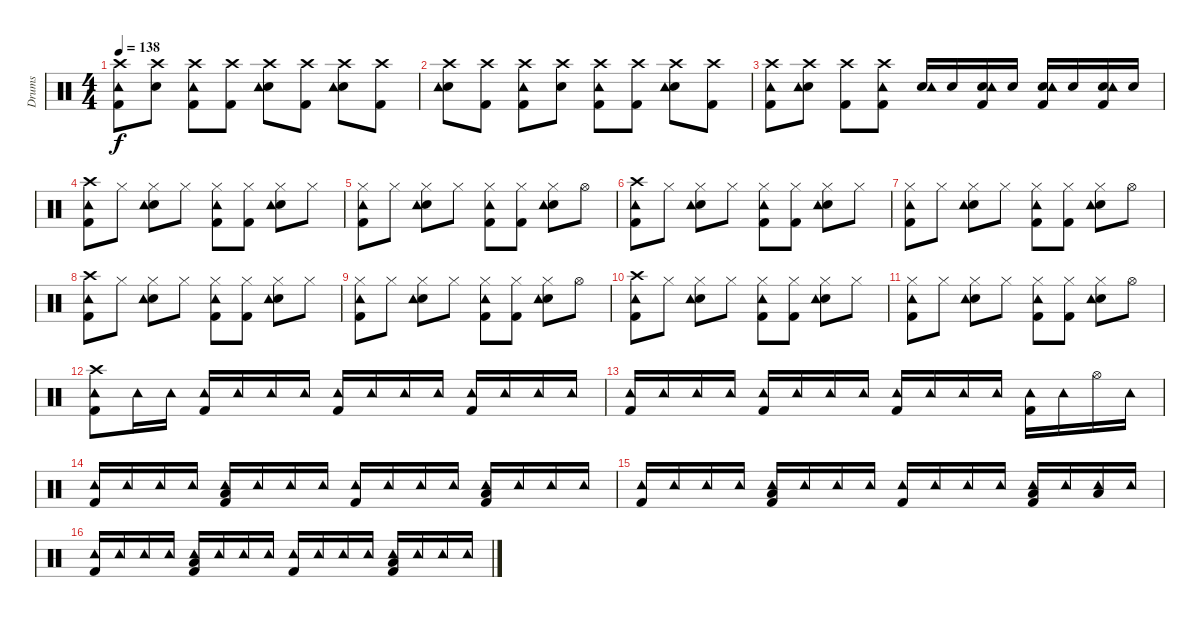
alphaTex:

\track ("Drums" "Drums") {instrument percussion}
\staff {score}
\articulation defaults
\ts (4 4)
\tempo 138
\clef neutral
\ks c
("Crash high (hit)" "Kick (hit) 2" "Tambourine (hit)").8{dy f} ("Crash high (hit)" "Electric Snare (hit)").8 ("Crash high (hit)" "Kick (hit) 2" "Tambourine (hit)").8 ("Crash high (hit)" "Kick (hit) 2").8 ("Crash high (hit)" "Electric Snare (hit)" "Tambourine (hit)").8 ("Crash high (hit)" "Kick (hit) 2").8 ("Crash high (hit)" "Electric Snare (hit)" "Tambourine (hit)").8 ("Crash high (hit)" "Kick (hit) 2").8 |
("Crash high (hit)" "Electric Snare (hit)" "Tambourine (hit)").8 ("Crash high (hit)" "Kick (hit) 2").8 ("Crash high (hit)" "Kick (hit) 2" "Tambourine (hit)").8 ("Crash high (hit)" "Electric Snare (hit)").8 ("Crash high (hit)" "Kick (hit) 2" "Tambourine (hit)").8 ("Crash high (hit)" "Kick (hit) 2").8 ("Crash high (hit)" "Electric Snare (hit)" "Tambourine (hit)").8 ("Crash high (hit)" "Kick (hit) 2").8 |
("Crash high (hit)" "Kick (hit) 2" "Tambourine (hit)").8 ("Crash high (hit)" "Electric Snare (hit)" "Tambourine (hit)").8 ("Crash high (hit)" "Kick (hit) 2").8 ("Crash high (hit)" "Kick (hit) 2" "Tambourine (hit)").8 ("Electric Snare (hit)" "Tambourine (hit)").16 "Electric Snare (hit)".16 ("Electric Snare (hit)" "Kick (hit) 2" "Tambourine (hit)").16 "Electric Snare (hit)".16 ("Electric Snare (hit)" "Kick (hit) 2" "Tambourine (hit)").16 "Electric Snare (hit)".16 ("Electric Snare (hit)" "Kick (hit) 2" "Tambourine (hit)").16 "Electric Snare (hit)".16 |
("Crash high (hit)" "Kick (hit) 2" "Tambourine (hit)").8 "Hi-Hat (closed)".8 ("Hi-Hat (closed)" "Electric Snare (hit)" "Tambourine (hit)").8 "Hi-Hat (closed)".8 ("Hi-Hat (closed)" "Kick (hit) 2" "Tambourine (hit)").8 ("Hi-Hat (closed)" "Kick (hit) 2").8 ("Hi-Hat (closed)" "Electric Snare (hit)" "Tambourine (hit)").8 "Hi-Hat (closed)".8 |
("Hi-Hat (closed)" "Kick (hit) 2" "Tambourine (hit)").8 "Hi-Hat (closed)".8 ("Hi-Hat (closed)" "Electric Snare (hit)" "Tambourine (hit)").8 "Hi-Hat (closed)".8 ("Hi-Hat (closed)" "Kick (hit) 2" "Tambourine (hit)").8 ("Hi-Hat (closed)" "Kick (hit) 2").8 ("Hi-Hat (closed)" "Electric Snare (hit)" "Tambourine (hit)").8 "Hi-Hat (open)".8 |
("Crash high (hit)" "Kick (hit) 2" "Tambourine (hit)").8 "Hi-Hat (closed)".8 ("Hi-Hat (closed)" "Electric Snare (hit)" "Tambourine (hit)").8 "Hi-Hat (closed)".8 ("Hi-Hat (closed)" "Kick (hit) 2" "Tambourine (hit)").8 ("Hi-Hat (closed)" "Kick (hit) 2").8 ("Hi-Hat (closed)" "Electric Snare (hit)" "Tambourine (hit)").8 "Hi-Hat (closed)".8 |
("Hi-Hat (closed)" "Kick (hit) 2" "Tambourine (hit)").8 "Hi-Hat (closed)".8 ("Hi-Hat (closed)" "Electric Snare (hit)" "Tambourine (hit)").8 "Hi-Hat (closed)".8 ("Hi-Hat (closed)" "Kick (hit) 2" "Tambourine (hit)").8 ("Hi-Hat (closed)" "Kick (hit) 2").8 ("Hi-Hat (closed)" "Electric Snare (hit)" "Tambourine (hit)").8 "Hi-Hat (open)".8 |
("Crash high (hit)" "Kick (hit) 2" "Tambourine (hit)").8 "Hi-Hat (closed)".8 ("Hi-Hat (closed)" "Electric Snare (hit)" "Tambourine (hit)").8 "Hi-Hat (closed)".8 ("Hi-Hat (closed)" "Kick (hit) 2" "Tambourine (hit)").8 ("Hi-Hat (closed)" "Kick (hit) 2").8 ("Hi-Hat (closed)" "Electric Snare (hit)" "Tambourine (hit)").8 "Hi-Hat (closed)".8 |
("Hi-Hat (closed)" "Kick (hit) 2" "Tambourine (hit)").8 "Hi-Hat (closed)".8 ("Hi-Hat (closed)" "Electric Snare (hit)" "Tambourine (hit)").8 "Hi-Hat (closed)".8 ("Hi-Hat (closed)" "Kick (hit) 2" "Tambourine (hit)").8 ("Hi-Hat (closed)" "Kick (hit) 2").8 ("Hi-Hat (closed)" "Electric Snare (hit)" "Tambourine (hit)").8 "Hi-Hat (open)".8 |
("Crash high (hit)" "Kick (hit) 2" "Tambourine (hit)").8 "Hi-Hat (closed)".8 ("Hi-Hat (closed)" "Electric Snare (hit)" "Tambourine (hit)").8 "Hi-Hat (closed)".8 ("Hi-Hat (closed)" "Kick (hit) 2" "Tambourine (hit)").8 ("Hi-Hat (closed)" "Kick (hit) 2").8 ("Hi-Hat (closed)" "Electric Snare (hit)" "Tambourine (hit)").8 "Hi-Hat (closed)".8 |
("Hi-Hat (closed)" "Kick (hit) 2" "Tambourine (hit)").8 "Hi-Hat (closed)".8 ("Hi-Hat (closed)" "Electric Snare (hit)" "Tambourine (hit)").8 "Hi-Hat (closed)".8 ("Hi-Hat (closed)" "Kick (hit) 2" "Tambourine (hit)").8 ("Hi-Hat (closed)" "Kick (hit) 2").8 ("Hi-Hat (closed)" "Electric Snare (hit)" "Tambourine (hit)").8 "Hi-Hat (open)".8 |
("Crash high (hit)" "Kick (hit) 2" "Tambourine (hit)").8 "Tambourine (hit)".16 "Tambourine (hit)".16 ("Tambourine (hit)" "Kick (hit) 2").16 "Tambourine (hit)".16 "Tambourine (hit)".16 "Tambourine (hit)".16 ("Tambourine (hit)" "Kick (hit) 2").16 "Tambourine (hit)".16 "Tambourine (hit)".16 "Tambourine (hit)".16 ("Tambourine (hit)" "Kick (hit) 2").16 "Tambourine (hit)".16 "Tambourine (hit)".16 "Tambourine (hit)".16 |
("Tambourine (hit)" "Kick (hit) 2").16 "Tambourine (hit)".16 "Tambourine (hit)".16 "Tambourine (hit)".16 ("Tambourine (hit)" "Kick (hit) 2").16 "Tambourine (hit)".16 "Tambourine (hit)".16 "Tambourine (hit)".16 ("Tambourine (hit)" "Kick (hit) 2").16 "Tambourine (hit)".16 "Tambourine (hit)".16 "Tambourine (hit)".16 ("Tambourine (hit)" "Kick (hit) 2").16 "Tambourine (hit)".16 "Hi-Hat (open)".16 "Tambourine (hit)".16 |
("Tambourine (hit)" "Kick (hit) 2").16 "Tambourine (hit)".16 "Tambourine (hit)".16 "Tambourine (hit)".16 ("Tambourine (hit)" "Kick (hit) 2" "Low Tom (hit)").16 "Tambourine (hit)".16 "Tambourine (hit)".16 "Tambourine (hit)".16 ("Tambourine (hit)" "Kick (hit) 2").16 "Tambourine (hit)".16 "Tambourine (hit)".16 "Tambourine (hit)".16 ("Tambourine (hit)" "Kick (hit) 2" "Low Tom (hit)").16 "Tambourine (hit)".16 "Tambourine (hit)".16 "Tambourine (hit)".16 |
("Tambourine (hit)" "Kick (hit) 2").16 "Tambourine (hit)".16 "Tambourine (hit)".16 "Tambourine (hit)".16 ("Tambourine (hit)" "Kick (hit) 2" "Low Tom (hit)").16 "Tambourine (hit)".16 "Tambourine (hit)".16 "Tambourine (hit)".16 ("Tambourine (hit)" "Kick (hit) 2").16 "Tambourine (hit)".16 "Tambourine (hit)".16 "Tambourine (hit)".16 ("Tambourine (hit)" "Kick (hit) 2" "Low Tom (hit)").16 "Tambourine (hit)".16 ("Tambourine (hit)" "Low Floor Tom (hit)").16 "Tambourine (hit)".16 |
("Tambourine (hit)" "Kick (hit) 2").16 "Tambourine (hit)".16 "Tambourine (hit)".16 "Tambourine (hit)".16 ("Tambourine (hit)" "Kick (hit) 2" "Low Tom (hit)").16 "Tambourine (hit)".16 "Tambourine (hit)".16 "Tambourine (hit)".16 ("Tambourine (hit)" "Kick (hit) 2").16 "Tambourine (hit)".16 "Tambourine (hit)".16 "Tambourine (hit)".16 ("Tambourine (hit)" "Kick (hit) 2" "Low Tom (hit)").16 "Tambourine (hit)".16 "Tambourine (hit)".16 "Tambourine (hit)".16
